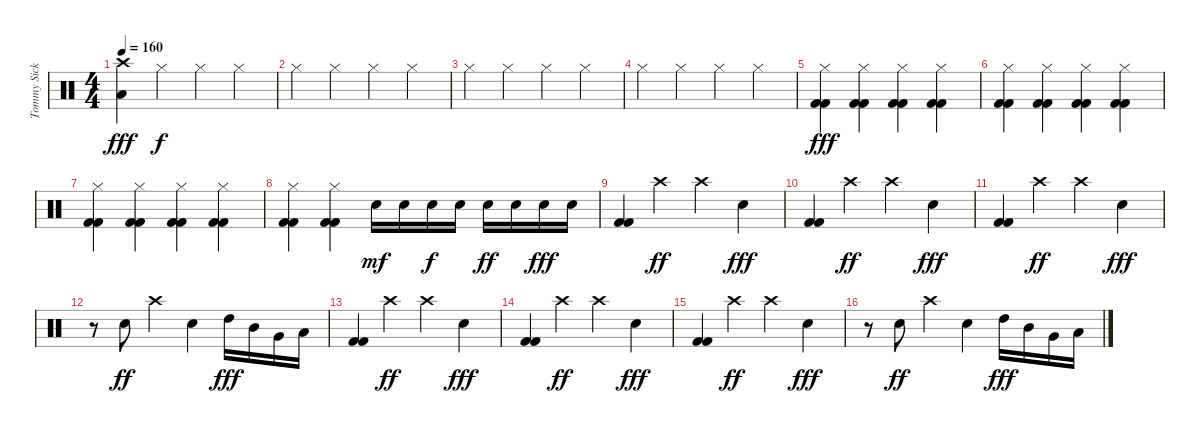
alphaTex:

\track ("Tommy Sickles" "Tommy Sick") {instrument percussion}
\staff {score}
\articulation defaults
\ts (4 4)
\tempo 160
\clef neutral
\ks c
("Crash high (hit)" "Low Floor Tom (hit)").4{dy fff} "Hi-Hat (closed)".4{dy f} "Hi-Hat (closed)".4 "Hi-Hat (closed)".4 |
"Hi-Hat (closed)".4 "Hi-Hat (closed)".4 "Hi-Hat (closed)".4 "Hi-Hat (closed)".4 |
"Hi-Hat (closed)".4 "Hi-Hat (closed)".4 "Hi-Hat (closed)".4 "Hi-Hat (closed)".4 |
"Hi-Hat (closed)".4 "Hi-Hat (closed)".4 "Hi-Hat (closed)".4 "Hi-Hat (closed)".4 |
("Hi-Hat (closed)" "Kick (hit) 2" "Kick (hit) 2").4{dy fff} ("Hi-Hat (closed)" "Kick (hit) 2" "Kick (hit) 2").4 ("Hi-Hat (closed)" "Kick (hit) 2" "Kick (hit) 2").4 ("Hi-Hat (closed)" "Kick (hit) 2" "Kick (hit) 2").4 |
("Hi-Hat (closed)" "Kick (hit) 2" "Kick (hit) 2").4 ("Hi-Hat (closed)" "Kick (hit) 2" "Kick (hit) 2").4 ("Hi-Hat (closed)" "Kick (hit) 2" "Kick (hit) 2").4 ("Hi-Hat (closed)" "Kick (hit) 2" "Kick (hit) 2").4 |
("Hi-Hat (closed)" "Kick (hit) 2" "Kick (hit) 2").4 ("Hi-Hat (closed)" "Kick (hit) 2" "Kick (hit) 2").4 ("Hi-Hat (closed)" "Kick (hit) 2" "Kick (hit) 2").4 ("Hi-Hat (closed)" "Kick (hit) 2" "Kick (hit) 2").4 |
("Hi-Hat (closed)" "Kick (hit) 2" "Kick (hit) 2").4 ("Hi-Hat (closed)" "Kick (hit) 2" "Kick (hit) 2").4 "Electric Snare (hit)".16{dy mf} "Electric Snare (hit)".16 "Electric Snare (hit)".16{dy f} "Electric Snare (hit)".16 "Electric Snare (hit)".16{dy ff} "Electric Snare (hit)".16 "Electric Snare (hit)".16{dy fff} "Electric Snare (hit)".16 |
("Kick (hit) 2" "Kick (hit) 2").4 "Crash high (hit)".4{dy ff} "Crash high (hit)".4 "Electric Snare (hit)".4{dy fff} |
("Kick (hit) 2" "Kick (hit) 2").4 "Crash high (hit)".4{dy ff} "Crash high (hit)".4 "Electric Snare (hit)".4{dy fff} |
("Kick (hit) 2" "Kick (hit) 2").4 "Crash high (hit)".4{dy ff} "Crash high (hit)".4 "Electric Snare (hit)".4{dy fff} |
r.8 "Electric Snare (hit)".8{dy ff} "Crash high (hit)".4 "Electric Snare (hit)".4 "High Tom (hit)".16{dy fff} "Mid Tom (hit)".16 "Very Low Tom (hit)".16 "Low Floor Tom (hit)".16 |
("Kick (hit) 2" "Kick (hit) 2").4 "Crash high (hit)".4{dy ff} "Crash high (hit)".4 "Electric Snare (hit)".4{dy fff} |
("Kick (hit) 2" "Kick (hit) 2").4 "Crash high (hit)".4{dy ff} "Crash high (hit)".4 "Electric Snare (hit)".4{dy fff} |
("Kick (hit) 2" "Kick (hit) 2").4 "Crash high (hit)".4{dy ff} "Crash high (hit)".4 "Electric Snare (hit)".4{dy fff} |
r.8 "Electric Snare (hit)".8{dy ff} "Crash high (hit)".4 "Electric Snare (hit)".4 "High Tom (hit)".16{dy fff} "Mid Tom (hit)".16 "Very Low Tom (hit)".16 "Low Floor Tom (hit)".16
